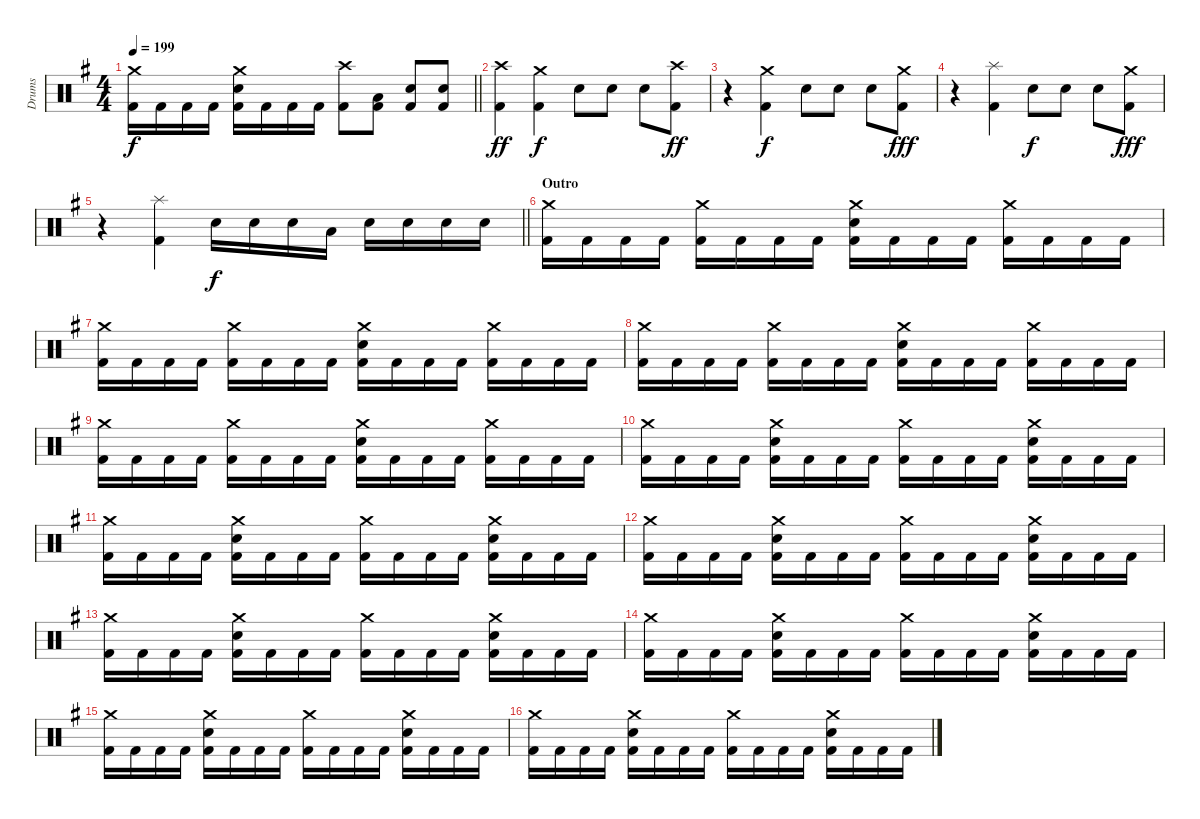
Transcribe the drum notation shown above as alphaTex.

\track ("Drums" "Drums") {instrument percussion}
\staff {score}
\articulation defaults
\ts (4 4)
\tempo 199
\clef neutral
\barLineRight lightlight
\ks eminor
("Crash medium (hit)" "Kick (hit) 2").16{dy f} "Kick (hit) 2".16 "Kick (hit) 2".16 "Kick (hit) 2".16 ("Crash medium (hit)" "Electric Snare (hit)" "Kick (hit) 2").16 "Kick (hit) 2".16 "Kick (hit) 2".16 "Kick (hit) 2".16 ("Crash high (hit)" "Kick (hit) 2").8 ("Low Tom (hit)" "Kick (hit) 2").8 ("Electric Snare (hit)" "Kick (hit) 2").8 ("Electric Snare (hit)" "Kick (hit) 2").8 |
("Crash high (hit)" "Kick (hit) 2").4{dy ff} ("Crash medium (hit)" "Kick (hit) 2").4{dy f} "Electric Snare (hit)".8 "Electric Snare (hit)".8 "Electric Snare (hit)".8 ("Crash high (hit)" "Kick (hit) 2").8{dy ff} |
r.4 ("Crash medium (hit)" "Kick (hit) 2").4{dy f} "Electric Snare (hit)".8 "Electric Snare (hit)".8 "Electric Snare (hit)".8 ("Crash medium (hit)" "Kick (hit) 2").8{dy fff} |
r.4 ("Splash (hit)" "Kick (hit) 2").4 "Electric Snare (hit)".8{dy f} "Electric Snare (hit)".8 "Electric Snare (hit)".8 ("Crash medium (hit)" "Kick (hit) 2").8{dy fff} |
\barLineRight lightlight
r.4 ("Splash (hit)" "Kick (hit) 2").4 "Electric Snare (hit)".16{dy f} "Electric Snare (hit)".16 "Electric Snare (hit)".16 "Low Tom (hit)".16 "Electric Snare (hit)".16 "Electric Snare (hit)".16 "Electric Snare (hit)".16 "Electric Snare (hit)".16 |
\section ("" "Outro")
("Crash medium (hit)" "Kick (hit) 2").16 "Kick (hit) 2".16 "Kick (hit) 2".16 "Kick (hit) 2".16 ("Crash medium (hit)" "Kick (hit) 2").16 "Kick (hit) 2".16 "Kick (hit) 2".16 "Kick (hit) 2".16 ("Crash medium (hit)" "Electric Snare (hit)" "Kick (hit) 2").16 "Kick (hit) 2".16 "Kick (hit) 2".16 "Kick (hit) 2".16 ("Crash medium (hit)" "Kick (hit) 2").16 "Kick (hit) 2".16 "Kick (hit) 2".16 "Kick (hit) 2".16 |
("Crash medium (hit)" "Kick (hit) 2").16 "Kick (hit) 2".16 "Kick (hit) 2".16 "Kick (hit) 2".16 ("Crash medium (hit)" "Kick (hit) 2").16 "Kick (hit) 2".16 "Kick (hit) 2".16 "Kick (hit) 2".16 ("Crash medium (hit)" "Electric Snare (hit)" "Kick (hit) 2").16 "Kick (hit) 2".16 "Kick (hit) 2".16 "Kick (hit) 2".16 ("Crash medium (hit)" "Kick (hit) 2").16 "Kick (hit) 2".16 "Kick (hit) 2".16 "Kick (hit) 2".16 |
("Crash medium (hit)" "Kick (hit) 2").16 "Kick (hit) 2".16 "Kick (hit) 2".16 "Kick (hit) 2".16 ("Crash medium (hit)" "Kick (hit) 2").16 "Kick (hit) 2".16 "Kick (hit) 2".16 "Kick (hit) 2".16 ("Crash medium (hit)" "Electric Snare (hit)" "Kick (hit) 2").16 "Kick (hit) 2".16 "Kick (hit) 2".16 "Kick (hit) 2".16 ("Crash medium (hit)" "Kick (hit) 2").16 "Kick (hit) 2".16 "Kick (hit) 2".16 "Kick (hit) 2".16 |
("Crash medium (hit)" "Kick (hit) 2").16 "Kick (hit) 2".16 "Kick (hit) 2".16 "Kick (hit) 2".16 ("Crash medium (hit)" "Kick (hit) 2").16 "Kick (hit) 2".16 "Kick (hit) 2".16 "Kick (hit) 2".16 ("Crash medium (hit)" "Electric Snare (hit)" "Kick (hit) 2").16 "Kick (hit) 2".16 "Kick (hit) 2".16 "Kick (hit) 2".16 ("Crash medium (hit)" "Kick (hit) 2").16 "Kick (hit) 2".16 "Kick (hit) 2".16 "Kick (hit) 2".16 |
("Crash medium (hit)" "Kick (hit) 2").16 "Kick (hit) 2".16 "Kick (hit) 2".16 "Kick (hit) 2".16 ("Crash medium (hit)" "Electric Snare (hit)" "Kick (hit) 2").16 "Kick (hit) 2".16 "Kick (hit) 2".16 "Kick (hit) 2".16 ("Crash medium (hit)" "Kick (hit) 2").16 "Kick (hit) 2".16 "Kick (hit) 2".16 "Kick (hit) 2".16 ("Crash medium (hit)" "Electric Snare (hit)" "Kick (hit) 2").16 "Kick (hit) 2".16 "Kick (hit) 2".16 "Kick (hit) 2".16 |
("Crash medium (hit)" "Kick (hit) 2").16 "Kick (hit) 2".16 "Kick (hit) 2".16 "Kick (hit) 2".16 ("Crash medium (hit)" "Electric Snare (hit)" "Kick (hit) 2").16 "Kick (hit) 2".16 "Kick (hit) 2".16 "Kick (hit) 2".16 ("Crash medium (hit)" "Kick (hit) 2").16 "Kick (hit) 2".16 "Kick (hit) 2".16 "Kick (hit) 2".16 ("Crash medium (hit)" "Electric Snare (hit)" "Kick (hit) 2").16 "Kick (hit) 2".16 "Kick (hit) 2".16 "Kick (hit) 2".16 |
("Crash medium (hit)" "Kick (hit) 2").16 "Kick (hit) 2".16 "Kick (hit) 2".16 "Kick (hit) 2".16 ("Crash medium (hit)" "Electric Snare (hit)" "Kick (hit) 2").16 "Kick (hit) 2".16 "Kick (hit) 2".16 "Kick (hit) 2".16 ("Crash medium (hit)" "Kick (hit) 2").16 "Kick (hit) 2".16 "Kick (hit) 2".16 "Kick (hit) 2".16 ("Crash medium (hit)" "Electric Snare (hit)" "Kick (hit) 2").16 "Kick (hit) 2".16 "Kick (hit) 2".16 "Kick (hit) 2".16 |
("Crash medium (hit)" "Kick (hit) 2").16 "Kick (hit) 2".16 "Kick (hit) 2".16 "Kick (hit) 2".16 ("Crash medium (hit)" "Electric Snare (hit)" "Kick (hit) 2").16 "Kick (hit) 2".16 "Kick (hit) 2".16 "Kick (hit) 2".16 ("Crash medium (hit)" "Kick (hit) 2").16 "Kick (hit) 2".16 "Kick (hit) 2".16 "Kick (hit) 2".16 ("Crash medium (hit)" "Electric Snare (hit)" "Kick (hit) 2").16 "Kick (hit) 2".16 "Kick (hit) 2".16 "Kick (hit) 2".16 |
("Crash medium (hit)" "Kick (hit) 2").16 "Kick (hit) 2".16 "Kick (hit) 2".16 "Kick (hit) 2".16 ("Crash medium (hit)" "Electric Snare (hit)" "Kick (hit) 2").16 "Kick (hit) 2".16 "Kick (hit) 2".16 "Kick (hit) 2".16 ("Crash medium (hit)" "Kick (hit) 2").16 "Kick (hit) 2".16 "Kick (hit) 2".16 "Kick (hit) 2".16 ("Crash medium (hit)" "Electric Snare (hit)" "Kick (hit) 2").16 "Kick (hit) 2".16 "Kick (hit) 2".16 "Kick (hit) 2".16 |
("Crash medium (hit)" "Kick (hit) 2").16 "Kick (hit) 2".16 "Kick (hit) 2".16 "Kick (hit) 2".16 ("Crash medium (hit)" "Electric Snare (hit)" "Kick (hit) 2").16 "Kick (hit) 2".16 "Kick (hit) 2".16 "Kick (hit) 2".16 ("Crash medium (hit)" "Kick (hit) 2").16 "Kick (hit) 2".16 "Kick (hit) 2".16 "Kick (hit) 2".16 ("Crash medium (hit)" "Electric Snare (hit)" "Kick (hit) 2").16 "Kick (hit) 2".16 "Kick (hit) 2".16 "Kick (hit) 2".16 |
("Crash medium (hit)" "Kick (hit) 2").16 "Kick (hit) 2".16 "Kick (hit) 2".16 "Kick (hit) 2".16 ("Crash medium (hit)" "Electric Snare (hit)" "Kick (hit) 2").16 "Kick (hit) 2".16 "Kick (hit) 2".16 "Kick (hit) 2".16 ("Crash medium (hit)" "Kick (hit) 2").16 "Kick (hit) 2".16 "Kick (hit) 2".16 "Kick (hit) 2".16 ("Crash medium (hit)" "Electric Snare (hit)" "Kick (hit) 2").16 "Kick (hit) 2".16 "Kick (hit) 2".16 "Kick (hit) 2".16
